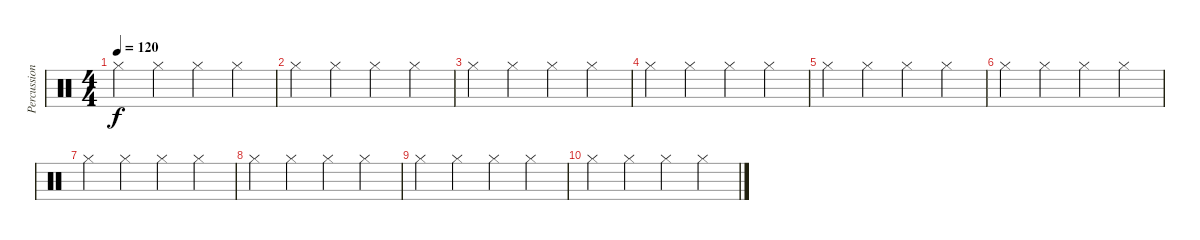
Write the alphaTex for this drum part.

\track ("Percussions" "Percussion") {instrument percussion}
\staff {score}
\articulation defaults
\ts (4 4)
\tempo 120
\clef neutral
\ks c "Hi-Hat (closed)".4{dy f} "Hi-Hat (closed)".4 "Hi-Hat (closed)".4 "Hi-Hat (closed)".4
|
"Hi-Hat (closed)".4 "Hi-Hat (closed)".4 "Hi-Hat (closed)".4 "Hi-Hat (closed)".4 |
"Hi-Hat (closed)".4 "Hi-Hat (closed)".4 "Hi-Hat (closed)".4 "Hi-Hat (closed)".4 |
"Hi-Hat (closed)".4 "Hi-Hat (closed)".4 "Hi-Hat (closed)".4 "Hi-Hat (closed)".4 |
"Hi-Hat (closed)".4 "Hi-Hat (closed)".4 "Hi-Hat (closed)".4 "Hi-Hat (closed)".4 |
"Hi-Hat (closed)".4 "Hi-Hat (closed)".4 "Hi-Hat (closed)".4 "Hi-Hat (closed)".4 |
"Hi-Hat (closed)".4 "Hi-Hat (closed)".4 "Hi-Hat (closed)".4 "Hi-Hat (closed)".4 |
"Hi-Hat (closed)".4 "Hi-Hat (closed)".4 "Hi-Hat (closed)".4 "Hi-Hat (closed)".4 |
"Hi-Hat (closed)".4 "Hi-Hat (closed)".4 "Hi-Hat (closed)".4 "Hi-Hat (closed)".4 |
"Hi-Hat (closed)".4 "Hi-Hat (closed)".4 "Hi-Hat (closed)".4 "Hi-Hat (closed)".4
